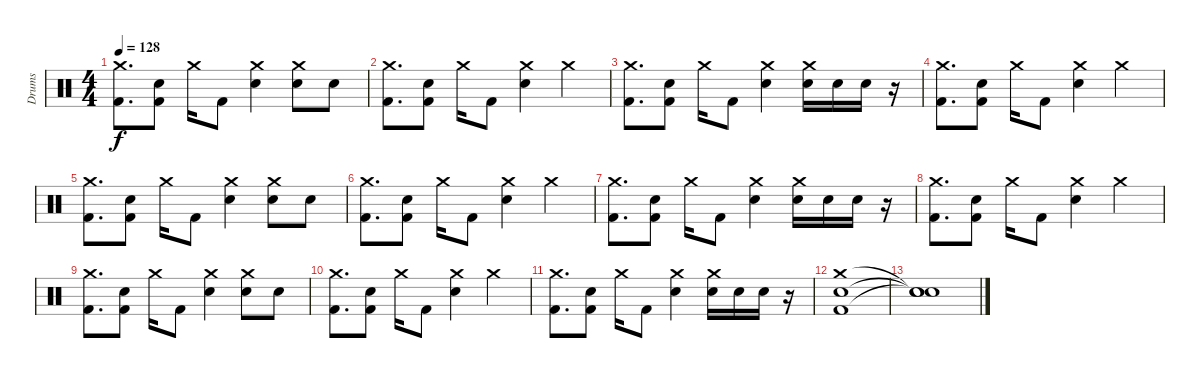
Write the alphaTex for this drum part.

\track ("Drums" "Drums") {instrument percussion}
\staff {score}
\articulation defaults
\ts (4 4)
\tempo 128
\clef neutral
\ks c
("Crash medium (hit)" "Kick (hit) 2").8{d dy f} ("Snare (hit) 2" "Kick (hit) 2").8 "Crash medium (hit)".16 "Kick (hit) 2".8 ("Crash medium (hit)" "Snare (hit) 2").4 ("Crash medium (hit)" "Snare (hit) 2").8 "Snare (hit) 2".8 |
("Crash medium (hit)" "Kick (hit) 2").8{d} ("Snare (hit) 2" "Kick (hit) 2").8 "Crash medium (hit)".16 "Kick (hit) 2".8 ("Crash medium (hit)" "Snare (hit) 2").4 "Crash medium (hit)".4 |
("Crash medium (hit)" "Kick (hit) 2").8{d} ("Snare (hit) 2" "Kick (hit) 2").8 "Crash medium (hit)".16 "Kick (hit) 2".8 ("Crash medium (hit)" "Snare (hit) 2").4 ("Crash medium (hit)" "Snare (hit) 2").16 "Snare (hit) 2".16 "Snare (hit) 2".16 r.16 |
("Crash medium (hit)" "Kick (hit) 2").8{d} ("Snare (hit) 2" "Kick (hit) 2").8 "Crash medium (hit)".16 "Kick (hit) 2".8 ("Crash medium (hit)" "Snare (hit) 2").4 "Crash medium (hit)".4 |
("Crash medium (hit)" "Kick (hit) 2").8{d} ("Snare (hit) 2" "Kick (hit) 2").8 "Crash medium (hit)".16 "Kick (hit) 2".8 ("Crash medium (hit)" "Snare (hit) 2").4 ("Crash medium (hit)" "Snare (hit) 2").8 "Snare (hit) 2".8 |
("Crash medium (hit)" "Kick (hit) 2").8{d} ("Snare (hit) 2" "Kick (hit) 2").8 "Crash medium (hit)".16 "Kick (hit) 2".8 ("Crash medium (hit)" "Snare (hit) 2").4 "Crash medium (hit)".4 |
("Crash medium (hit)" "Kick (hit) 2").8{d} ("Snare (hit) 2" "Kick (hit) 2").8 "Crash medium (hit)".16 "Kick (hit) 2".8 ("Crash medium (hit)" "Snare (hit) 2").4 ("Crash medium (hit)" "Snare (hit) 2").16 "Snare (hit) 2".16 "Snare (hit) 2".16 r.16 |
("Crash medium (hit)" "Kick (hit) 2").8{d} ("Snare (hit) 2" "Kick (hit) 2").8 "Crash medium (hit)".16 "Kick (hit) 2".8 ("Crash medium (hit)" "Snare (hit) 2").4 "Crash medium (hit)".4 |
("Crash medium (hit)" "Kick (hit) 2").8{d} ("Snare (hit) 2" "Kick (hit) 2").8 "Crash medium (hit)".16 "Kick (hit) 2".8 ("Crash medium (hit)" "Snare (hit) 2").4 ("Crash medium (hit)" "Snare (hit) 2").8 "Snare (hit) 2".8 |
("Crash medium (hit)" "Kick (hit) 2").8{d} ("Snare (hit) 2" "Kick (hit) 2").8 "Crash medium (hit)".16 "Kick (hit) 2".8 ("Crash medium (hit)" "Snare (hit) 2").4 "Crash medium (hit)".4 |
("Crash medium (hit)" "Kick (hit) 2").8{d} ("Snare (hit) 2" "Kick (hit) 2").8 "Crash medium (hit)".16 "Kick (hit) 2".8 ("Crash medium (hit)" "Snare (hit) 2").4 ("Crash medium (hit)" "Snare (hit) 2").16 "Snare (hit) 2".16 "Snare (hit) 2".16 r.16 |
("Crash medium (hit)" "Snare (hit) 2" "Kick (hit) 2").1 |
("Snare (hit)"{t} "Snare (hit)"{t} "Snare (hit)"{t}).1
